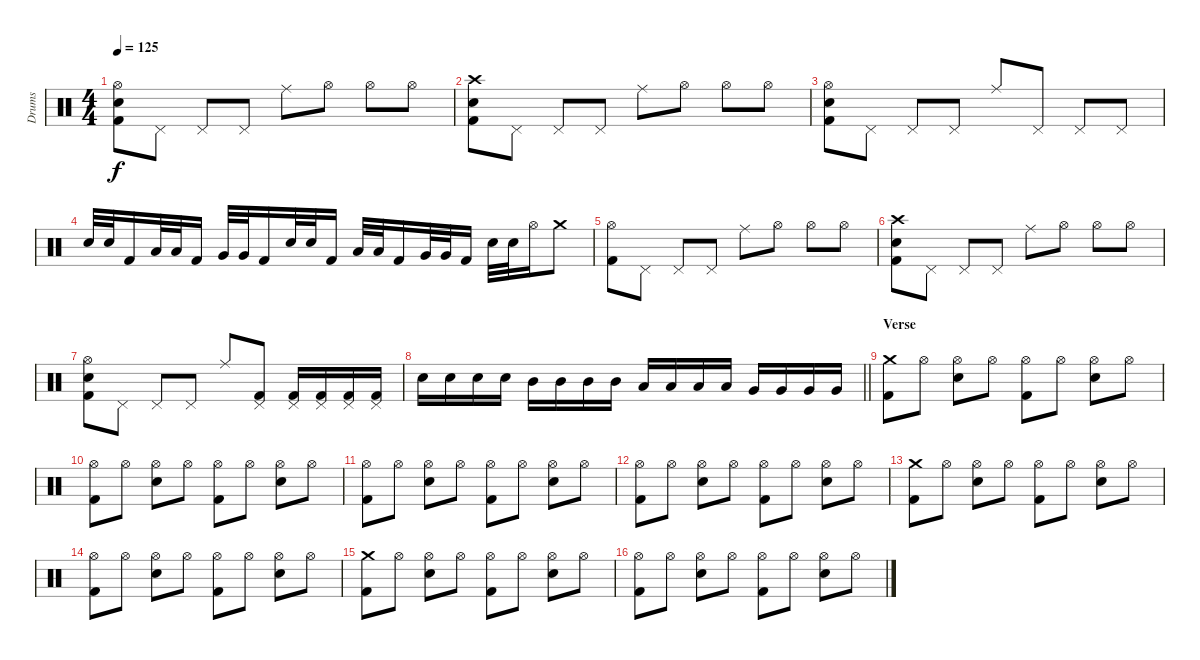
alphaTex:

\track ("Drums" "Drums") {instrument percussion}
\staff {score}
\articulation defaults
\ts (4 4)
\tempo 125
\clef neutral
\ks c
("Hi-Hat (open)" "Electric Snare (hit)" "Kick (hit) 2").8{dy f} "Pedal Hi-Hat (hit)".8 "Pedal Hi-Hat (hit)".8 "Pedal Hi-Hat (hit)".8 "Ride (middle)".8 "Hi-Hat (open)".8 "Hi-Hat (open)".8 "Hi-Hat (open)".8 |
("Crash high (hit)" "Electric Snare (hit)" "Kick (hit) 2").8 "Pedal Hi-Hat (hit)".8 "Pedal Hi-Hat (hit)".8 "Pedal Hi-Hat (hit)".8 "Ride (middle)".8 "Hi-Hat (open)".8 "Hi-Hat (open)".8 "Hi-Hat (open)".8 |
("Hi-Hat (open)" "Electric Snare (hit)" "Kick (hit) 2").8 "Pedal Hi-Hat (hit)".8 "Pedal Hi-Hat (hit)".8 "Pedal Hi-Hat (hit)".8 "Ride (middle)".8 "Pedal Hi-Hat (hit)".8 "Pedal Hi-Hat (hit)".8 "Pedal Hi-Hat (hit)".8 |
"Electric Snare (hit)".32 "Electric Snare (hit)".32 "Kick (hit) 2".16 "Low Tom (hit)".32 "Low Tom (hit)".32 "Kick (hit) 2".16 "Very Low Tom (hit)".32 "Very Low Tom (hit)".32 "Kick (hit) 2".16 "Electric Snare (hit)".32 "Electric Snare (hit)".32 "Kick (hit) 2".16 "Low Tom (hit)".32 "Low Tom (hit)".32 "Kick (hit) 2".16 "Very Low Tom (hit)".32 "Very Low Tom (hit)".32 "Kick (hit) 2".16 "Electric Snare (hit)".32 "Electric Snare (hit)".32 "Hi-Hat (open)".16 "Crash medium (hit)".8 |
("Hi-Hat (open)" "Kick (hit) 2").8 "Pedal Hi-Hat (hit)".8 "Pedal Hi-Hat (hit)".8 "Pedal Hi-Hat (hit)".8 "Ride (middle)".8 "Hi-Hat (open)".8 "Hi-Hat (open)".8 "Hi-Hat (open)".8 |
("Crash high (hit)" "Electric Snare (hit)" "Kick (hit) 2").8 "Pedal Hi-Hat (hit)".8 "Pedal Hi-Hat (hit)".8 "Pedal Hi-Hat (hit)".8 "Ride (middle)".8 "Hi-Hat (open)".8 "Hi-Hat (open)".8 "Hi-Hat (open)".8 |
("Hi-Hat (open)" "Electric Snare (hit)" "Kick (hit) 2").8 "Pedal Hi-Hat (hit)".8 "Pedal Hi-Hat (hit)".8 "Pedal Hi-Hat (hit)".8 "Ride (middle)".8 ("Pedal Hi-Hat (hit)" "Kick (hit) 2").8 ("Pedal Hi-Hat (hit)" "Kick (hit) 2").16 ("Pedal Hi-Hat (hit)" "Kick (hit) 2").16 ("Pedal Hi-Hat (hit)" "Kick (hit) 2").16 ("Pedal Hi-Hat (hit)" "Kick (hit) 2").16 |
\barLineRight lightlight "Electric Snare (hit)".16 "Electric Snare (hit)".16 "Electric Snare (hit)".16 "Electric Snare (hit)".16 "Mid Tom (hit)".16 "Mid Tom (hit)".16 "Mid Tom (hit)".16 "Mid Tom (hit)".16 "Low Tom (hit)".16 "Low Tom (hit)".16 "Low Tom (hit)".16 "Low Tom (hit)".16 "Very Low Tom (hit)".16 "Very Low Tom (hit)".16 "Very Low Tom (hit)".16 "Very Low Tom (hit)".16
|
\section ("" "Verse")
("Crash medium (hit)" "Kick (hit) 2").8 "Hi-Hat (open)".8 ("Hi-Hat (open)" "Electric Snare (hit)").8 "Hi-Hat (open)".8 ("Hi-Hat (open)" "Kick (hit) 2").8 "Hi-Hat (open)".8 ("Hi-Hat (open)" "Electric Snare (hit)").8 "Hi-Hat (open)".8 |
("Hi-Hat (open)" "Kick (hit) 2").8 "Hi-Hat (open)".8 ("Hi-Hat (open)" "Electric Snare (hit)").8 "Hi-Hat (open)".8 ("Hi-Hat (open)" "Kick (hit) 2").8 "Hi-Hat (open)".8 ("Hi-Hat (open)" "Electric Snare (hit)").8 "Hi-Hat (open)".8 |
("Hi-Hat (open)" "Kick (hit) 2").8 "Hi-Hat (open)".8 ("Hi-Hat (open)" "Electric Snare (hit)").8 "Hi-Hat (open)".8 ("Hi-Hat (open)" "Kick (hit) 2").8 "Hi-Hat (open)".8 ("Hi-Hat (open)" "Electric Snare (hit)").8 "Hi-Hat (open)".8 |
("Hi-Hat (open)" "Kick (hit) 2").8 "Hi-Hat (open)".8 ("Hi-Hat (open)" "Electric Snare (hit)").8 "Hi-Hat (open)".8 ("Hi-Hat (open)" "Kick (hit) 2").8 "Hi-Hat (open)".8 ("Hi-Hat (open)" "Electric Snare (hit)").8 "Hi-Hat (open)".8 |
("Crash medium (hit)" "Kick (hit) 2").8 "Hi-Hat (open)".8 ("Hi-Hat (open)" "Electric Snare (hit)").8 "Hi-Hat (open)".8 ("Hi-Hat (open)" "Kick (hit) 2").8 "Hi-Hat (open)".8 ("Hi-Hat (open)" "Electric Snare (hit)").8 "Hi-Hat (open)".8 |
("Hi-Hat (open)" "Kick (hit) 2").8 "Hi-Hat (open)".8 ("Hi-Hat (open)" "Electric Snare (hit)").8 "Hi-Hat (open)".8 ("Hi-Hat (open)" "Kick (hit) 2").8 "Hi-Hat (open)".8 ("Hi-Hat (open)" "Electric Snare (hit)").8 "Hi-Hat (open)".8 |
("Crash medium (hit)" "Kick (hit) 2").8 "Hi-Hat (open)".8 ("Hi-Hat (open)" "Electric Snare (hit)").8 "Hi-Hat (open)".8 ("Hi-Hat (open)" "Kick (hit) 2").8 "Hi-Hat (open)".8 ("Hi-Hat (open)" "Electric Snare (hit)").8 "Hi-Hat (open)".8 |
("Hi-Hat (open)" "Kick (hit) 2").8 "Hi-Hat (open)".8 ("Hi-Hat (open)" "Electric Snare (hit)").8 "Hi-Hat (open)".8 ("Hi-Hat (open)" "Kick (hit) 2").8 "Hi-Hat (open)".8 ("Hi-Hat (open)" "Electric Snare (hit)").8 "Hi-Hat (open)".8
